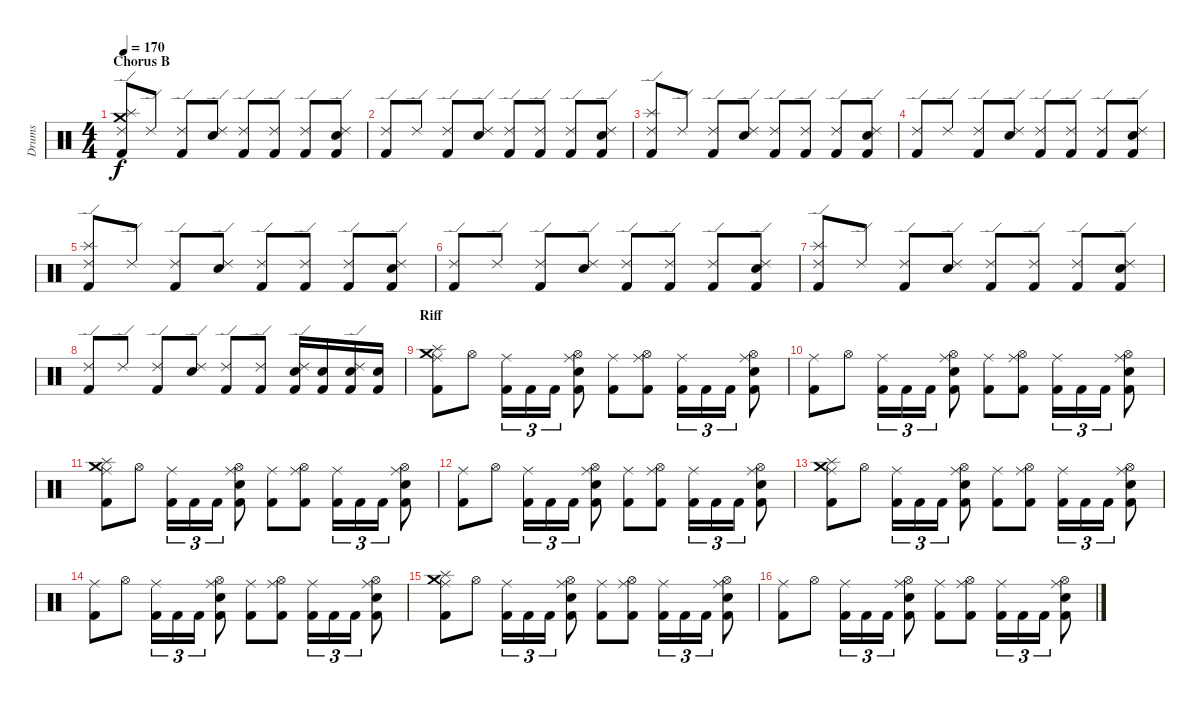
\track ("Drums" "Drums") {instrument percussion}
\staff {score}
\articulation defaults
\ts (4 4)
\section ("" "Chorus B")
\tempo 170
\clef neutral
\ks c
("Kick (hit) 2" "Crash medium (hit)" "Splash (hit)" "Ride (edge) 2").8{dy f} "Ride (edge) 2".8 ("Kick (hit) 2" "Ride (edge) 2").8 ("Snare (hit) 2" "Ride (edge) 2").8 ("Kick (hit) 2" "Ride (edge) 2").8 ("Kick (hit) 2" "Ride (edge) 2").8 ("Kick (hit) 2" "Ride (edge) 2").8 ("Kick (hit) 2" "Snare (hit) 2" "Ride (edge) 2").8 |
("Kick (hit) 2" "Ride (edge) 2").8 "Ride (edge) 2".8 ("Kick (hit) 2" "Ride (edge) 2").8 ("Snare (hit) 2" "Ride (edge) 2").8 ("Kick (hit) 2" "Ride (edge) 2").8 ("Kick (hit) 2" "Ride (edge) 2").8 ("Kick (hit) 2" "Ride (edge) 2").8 ("Kick (hit) 2" "Snare (hit) 2" "Ride (edge) 2").8 |
("Kick (hit) 2" "Splash (hit)" "Ride (edge) 2").8 "Ride (edge) 2".8 ("Kick (hit) 2" "Ride (edge) 2").8 ("Snare (hit) 2" "Ride (edge) 2").8 ("Kick (hit) 2" "Ride (edge) 2").8 ("Kick (hit) 2" "Ride (edge) 2").8 ("Kick (hit) 2" "Ride (edge) 2").8 ("Kick (hit) 2" "Snare (hit) 2" "Ride (edge) 2").8 |
("Kick (hit) 2" "Ride (edge) 2").8 "Ride (edge) 2".8 ("Kick (hit) 2" "Ride (edge) 2").8 ("Snare (hit) 2" "Ride (edge) 2").8 ("Kick (hit) 2" "Ride (edge) 2").8 ("Kick (hit) 2" "Ride (edge) 2").8 ("Kick (hit) 2" "Ride (edge) 2").8 ("Kick (hit) 2" "Snare (hit) 2" "Ride (edge) 2").8 |
("Kick (hit) 2" "Splash (hit)" "Ride (edge) 2").8 "Ride (edge) 2".8 ("Kick (hit) 2" "Ride (edge) 2").8 ("Snare (hit) 2" "Ride (edge) 2").8 ("Kick (hit) 2" "Ride (edge) 2").8 ("Kick (hit) 2" "Ride (edge) 2").8 ("Kick (hit) 2" "Ride (edge) 2").8 ("Kick (hit) 2" "Snare (hit) 2" "Ride (edge) 2").8 |
("Kick (hit) 2" "Ride (edge) 2").8 "Ride (edge) 2".8 ("Kick (hit) 2" "Ride (edge) 2").8 ("Snare (hit) 2" "Ride (edge) 2").8 ("Kick (hit) 2" "Ride (edge) 2").8 ("Kick (hit) 2" "Ride (edge) 2").8 ("Kick (hit) 2" "Ride (edge) 2").8 ("Kick (hit) 2" "Snare (hit) 2" "Ride (edge) 2").8 |
("Kick (hit) 2" "Splash (hit)" "Ride (edge) 2").8 "Ride (edge) 2".8 ("Kick (hit) 2" "Ride (edge) 2").8 ("Snare (hit) 2" "Ride (edge) 2").8 ("Kick (hit) 2" "Ride (edge) 2").8 ("Kick (hit) 2" "Ride (edge) 2").8 ("Kick (hit) 2" "Ride (edge) 2").8 ("Kick (hit) 2" "Snare (hit) 2" "Ride (edge) 2").8 |
("Kick (hit) 2" "Ride (edge) 2").8 "Ride (edge) 2".8 ("Kick (hit) 2" "Ride (edge) 2").8 ("Snare (hit) 2" "Ride (edge) 2").8 ("Kick (hit) 2" "Ride (edge) 2").8 ("Kick (hit) 2" "Ride (edge) 2").8 ("Kick (hit) 2" "Snare (hit) 2" "Ride (edge) 2").16 ("Kick (hit) 2" "Snare (hit) 2").16 ("Kick (hit) 2" "Snare (hit) 2" "Ride (edge) 2").16 ("Kick (hit) 2" "Snare (hit) 2").16 |
\section ("" "Riff")
("Kick (hit) 2" "Splash (hit)" "Crash medium (hit)" "Ride (middle)").8 "Hi-Hat (open)".8 ("Kick (hit) 2" "Ride (middle)").16{tu (3 2)} "Kick (hit) 2".16{tu (3 2)} "Kick (hit) 2".16{tu (3 2)} ("Kick (hit) 2" "Snare (hit) 2" "Hi-Hat (open)" "Ride (middle)").8 ("Kick (hit) 2" "Ride (middle)").8 ("Kick (hit) 2" "Hi-Hat (open)" "Ride (middle)").8 ("Kick (hit) 2" "Ride (middle)").16{tu (3 2)} "Kick (hit) 2".16{tu (3 2)} "Kick (hit) 2".16{tu (3 2)} ("Kick (hit) 2" "Snare (hit) 2" "Hi-Hat (open)" "Ride (middle)").8 |
("Kick (hit) 2" "Ride (middle)").8 "Hi-Hat (open)".8 ("Kick (hit) 2" "Ride (middle)").16{tu (3 2)} "Kick (hit) 2".16{tu (3 2)} "Kick (hit) 2".16{tu (3 2)} ("Kick (hit) 2" "Snare (hit) 2" "Hi-Hat (open)" "Ride (middle)").8 ("Kick (hit) 2" "Ride (middle)").8 ("Kick (hit) 2" "Hi-Hat (open)" "Ride (middle)").8 ("Kick (hit) 2" "Ride (middle)").16{tu (3 2)} "Kick (hit) 2".16{tu (3 2)} "Kick (hit) 2".16{tu (3 2)} ("Kick (hit) 2" "Snare (hit) 2" "Hi-Hat (open)" "Ride (middle)").8 |
("Kick (hit) 2" "Splash (hit)" "Crash medium (hit)" "Ride (middle)").8 "Hi-Hat (open)".8 ("Kick (hit) 2" "Ride (middle)").16{tu (3 2)} "Kick (hit) 2".16{tu (3 2)} "Kick (hit) 2".16{tu (3 2)} ("Kick (hit) 2" "Snare (hit) 2" "Hi-Hat (open)" "Ride (middle)").8 ("Kick (hit) 2" "Ride (middle)").8 ("Kick (hit) 2" "Hi-Hat (open)" "Ride (middle)").8 ("Kick (hit) 2" "Ride (middle)").16{tu (3 2)} "Kick (hit) 2".16{tu (3 2)} "Kick (hit) 2".16{tu (3 2)} ("Kick (hit) 2" "Snare (hit) 2" "Hi-Hat (open)" "Ride (middle)").8 |
("Kick (hit) 2" "Ride (middle)").8 "Hi-Hat (open)".8 ("Kick (hit) 2" "Ride (middle)").16{tu (3 2)} "Kick (hit) 2".16{tu (3 2)} "Kick (hit) 2".16{tu (3 2)} ("Kick (hit) 2" "Snare (hit) 2" "Hi-Hat (open)" "Ride (middle)").8 ("Kick (hit) 2" "Ride (middle)").8 ("Kick (hit) 2" "Hi-Hat (open)" "Ride (middle)").8 ("Kick (hit) 2" "Ride (middle)").16{tu (3 2)} "Kick (hit) 2".16{tu (3 2)} "Kick (hit) 2".16{tu (3 2)} ("Kick (hit) 2" "Snare (hit) 2" "Hi-Hat (open)" "Ride (middle)").8 |
("Kick (hit) 2" "Splash (hit)" "Crash medium (hit)" "Ride (middle)").8 "Hi-Hat (open)".8 ("Kick (hit) 2" "Ride (middle)").16{tu (3 2)} "Kick (hit) 2".16{tu (3 2)} "Kick (hit) 2".16{tu (3 2)} ("Kick (hit) 2" "Snare (hit) 2" "Hi-Hat (open)" "Ride (middle)").8 ("Kick (hit) 2" "Ride (middle)").8 ("Kick (hit) 2" "Hi-Hat (open)" "Ride (middle)").8 ("Kick (hit) 2" "Ride (middle)").16{tu (3 2)} "Kick (hit) 2".16{tu (3 2)} "Kick (hit) 2".16{tu (3 2)} ("Kick (hit) 2" "Snare (hit) 2" "Hi-Hat (open)" "Ride (middle)").8 |
("Kick (hit) 2" "Ride (middle)").8 "Hi-Hat (open)".8 ("Kick (hit) 2" "Ride (middle)").16{tu (3 2)} "Kick (hit) 2".16{tu (3 2)} "Kick (hit) 2".16{tu (3 2)} ("Kick (hit) 2" "Snare (hit) 2" "Hi-Hat (open)" "Ride (middle)").8 ("Kick (hit) 2" "Ride (middle)").8 ("Kick (hit) 2" "Hi-Hat (open)" "Ride (middle)").8 ("Kick (hit) 2" "Ride (middle)").16{tu (3 2)} "Kick (hit) 2".16{tu (3 2)} "Kick (hit) 2".16{tu (3 2)} ("Kick (hit) 2" "Snare (hit) 2" "Hi-Hat (open)" "Ride (middle)").8 |
("Kick (hit) 2" "Splash (hit)" "Crash medium (hit)" "Ride (middle)").8 "Hi-Hat (open)".8 ("Kick (hit) 2" "Ride (middle)").16{tu (3 2)} "Kick (hit) 2".16{tu (3 2)} "Kick (hit) 2".16{tu (3 2)} ("Kick (hit) 2" "Snare (hit) 2" "Hi-Hat (open)" "Ride (middle)").8 ("Kick (hit) 2" "Ride (middle)").8 ("Kick (hit) 2" "Hi-Hat (open)" "Ride (middle)").8 ("Kick (hit) 2" "Ride (middle)").16{tu (3 2)} "Kick (hit) 2".16{tu (3 2)} "Kick (hit) 2".16{tu (3 2)} ("Kick (hit) 2" "Snare (hit) 2" "Hi-Hat (open)" "Ride (middle)").8 |
("Kick (hit) 2" "Ride (middle)").8 "Hi-Hat (open)".8 ("Kick (hit) 2" "Ride (middle)").16{tu (3 2)} "Kick (hit) 2".16{tu (3 2)} "Kick (hit) 2".16{tu (3 2)} ("Kick (hit) 2" "Snare (hit) 2" "Hi-Hat (open)" "Ride (middle)").8 ("Kick (hit) 2" "Ride (middle)").8 ("Kick (hit) 2" "Hi-Hat (open)" "Ride (middle)").8 ("Kick (hit) 2" "Ride (middle)").16{tu (3 2)} "Kick (hit) 2".16{tu (3 2)} "Kick (hit) 2".16{tu (3 2)} ("Kick (hit) 2" "Snare (hit) 2" "Hi-Hat (open)" "Ride (middle)").8
